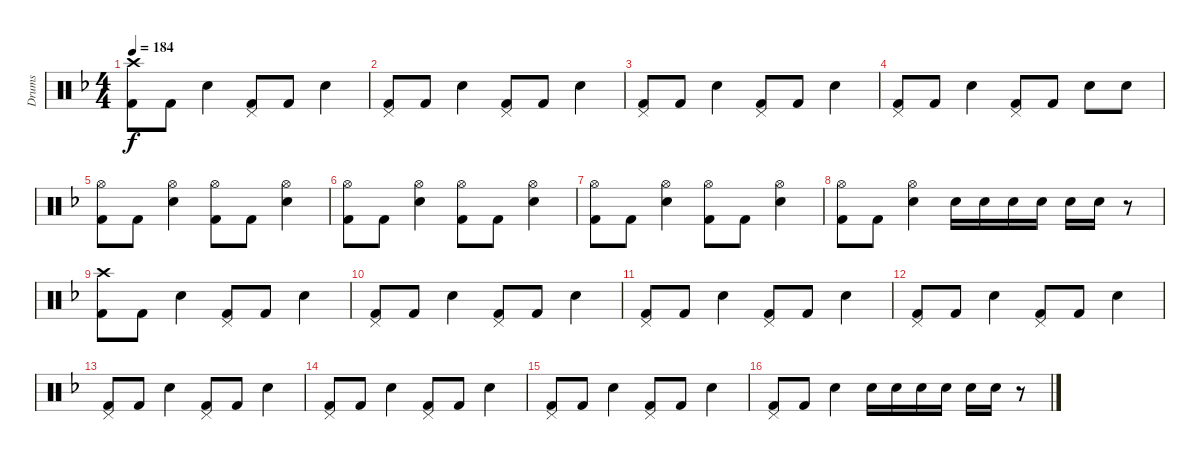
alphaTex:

\track ("Drums" "Drums") {instrument percussion}
\staff {score}
\articulation defaults
\ts (4 4)
\tempo 184
\clef neutral
\ks f
("Crash high (hit)" "Kick (hit) 2").8{dy f} "Kick (hit) 2".8 "Electric Snare (hit)".4 ("Pedal Hi-Hat (hit)" "Kick (hit) 2").8 "Kick (hit) 2".8 "Electric Snare (hit)".4 |
("Pedal Hi-Hat (hit)" "Kick (hit) 2").8 "Kick (hit) 2".8 "Electric Snare (hit)".4 ("Pedal Hi-Hat (hit)" "Kick (hit) 2").8 "Kick (hit) 2".8 "Electric Snare (hit)".4 |
("Pedal Hi-Hat (hit)" "Kick (hit) 2").8 "Kick (hit) 2".8 "Electric Snare (hit)".4 ("Pedal Hi-Hat (hit)" "Kick (hit) 2").8 "Kick (hit) 2".8 "Electric Snare (hit)".4 |
("Pedal Hi-Hat (hit)" "Kick (hit) 2").8 "Kick (hit) 2".8 "Electric Snare (hit)".4 ("Pedal Hi-Hat (hit)" "Kick (hit) 2").8 "Kick (hit) 2".8 "Electric Snare (hit)".8 "Electric Snare (hit)".8 |
("Hi-Hat (open)" "Kick (hit) 2").8 "Kick (hit) 2".8 ("Electric Snare (hit)" "Hi-Hat (open)").4 ("Hi-Hat (open)" "Kick (hit) 2").8 "Kick (hit) 2".8 ("Electric Snare (hit)" "Hi-Hat (open)").4 |
("Hi-Hat (open)" "Kick (hit) 2").8 "Kick (hit) 2".8 ("Electric Snare (hit)" "Hi-Hat (open)").4 ("Hi-Hat (open)" "Kick (hit) 2").8 "Kick (hit) 2".8 ("Electric Snare (hit)" "Hi-Hat (open)").4 |
("Hi-Hat (open)" "Kick (hit) 2").8 "Kick (hit) 2".8 ("Electric Snare (hit)" "Hi-Hat (open)").4 ("Hi-Hat (open)" "Kick (hit) 2").8 "Kick (hit) 2".8 ("Electric Snare (hit)" "Hi-Hat (open)").4 |
("Hi-Hat (open)" "Kick (hit) 2").8 "Kick (hit) 2".8 ("Electric Snare (hit)" "Hi-Hat (open)").4 "Electric Snare (hit)".16 "Electric Snare (hit)".16 "Electric Snare (hit)".16 "Electric Snare (hit)".16 "Electric Snare (hit)".16 "Electric Snare (hit)".16 r.8 |
("Crash high (hit)" "Kick (hit) 2").8 "Kick (hit) 2".8 "Electric Snare (hit)".4 ("Pedal Hi-Hat (hit)" "Kick (hit) 2").8 "Kick (hit) 2".8 "Electric Snare (hit)".4 |
("Pedal Hi-Hat (hit)" "Kick (hit) 2").8 "Kick (hit) 2".8 "Electric Snare (hit)".4 ("Pedal Hi-Hat (hit)" "Kick (hit) 2").8 "Kick (hit) 2".8 "Electric Snare (hit)".4 |
("Pedal Hi-Hat (hit)" "Kick (hit) 2").8 "Kick (hit) 2".8 "Electric Snare (hit)".4 ("Pedal Hi-Hat (hit)" "Kick (hit) 2").8 "Kick (hit) 2".8 "Electric Snare (hit)".4 |
("Pedal Hi-Hat (hit)" "Kick (hit) 2").8 "Kick (hit) 2".8 "Electric Snare (hit)".4 ("Pedal Hi-Hat (hit)" "Kick (hit) 2").8 "Kick (hit) 2".8 "Electric Snare (hit)".4 |
("Pedal Hi-Hat (hit)" "Kick (hit) 2").8 "Kick (hit) 2".8 "Electric Snare (hit)".4 ("Pedal Hi-Hat (hit)" "Kick (hit) 2").8 "Kick (hit) 2".8 "Electric Snare (hit)".4 |
("Pedal Hi-Hat (hit)" "Kick (hit) 2").8 "Kick (hit) 2".8 "Electric Snare (hit)".4 ("Pedal Hi-Hat (hit)" "Kick (hit) 2").8 "Kick (hit) 2".8 "Electric Snare (hit)".4 |
("Pedal Hi-Hat (hit)" "Kick (hit) 2").8 "Kick (hit) 2".8 "Electric Snare (hit)".4 ("Pedal Hi-Hat (hit)" "Kick (hit) 2").8 "Kick (hit) 2".8 "Electric Snare (hit)".4 |
("Pedal Hi-Hat (hit)" "Kick (hit) 2").8 "Kick (hit) 2".8 "Electric Snare (hit)".4 "Electric Snare (hit)".16 "Electric Snare (hit)".16 "Electric Snare (hit)".16 "Electric Snare (hit)".16 "Electric Snare (hit)".16 "Electric Snare (hit)".16 r.8
